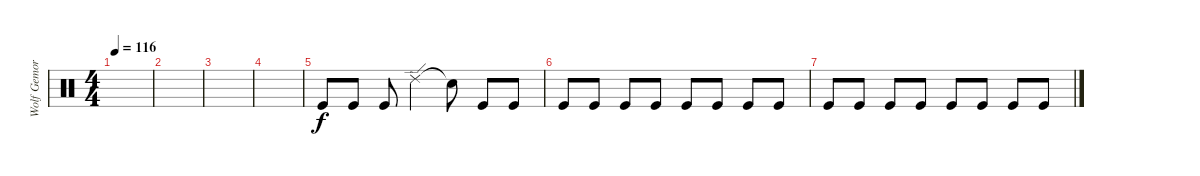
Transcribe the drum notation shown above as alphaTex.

\track ("Wolf Gemora" "Wolf Gemor") {instrument percussion}
\staff {score}
\articulation defaults
\ts (4 4)
\tempo 116
\clef neutral
\ks c
|
|
|
|
"Kick (hit)".8{volume 6} "Kick (hit)".8 "Kick (hit)".8 "Ride (edge) 2".4{volume 16} "Snare (hit)"{t}.8 "Kick (hit)".8{volume 6} "Kick (hit)".8 |
"Kick (hit)".8 "Kick (hit)".8 "Kick (hit)".8 "Kick (hit)".8 "Kick (hit)".8 "Kick (hit)".8 "Kick (hit)".8 "Kick (hit)".8 |
"Kick (hit)".8 "Kick (hit)".8 "Kick (hit)".8 "Kick (hit)".8 "Kick (hit)".8 "Kick (hit)".8 "Kick (hit)".8 "Kick (hit)".8
